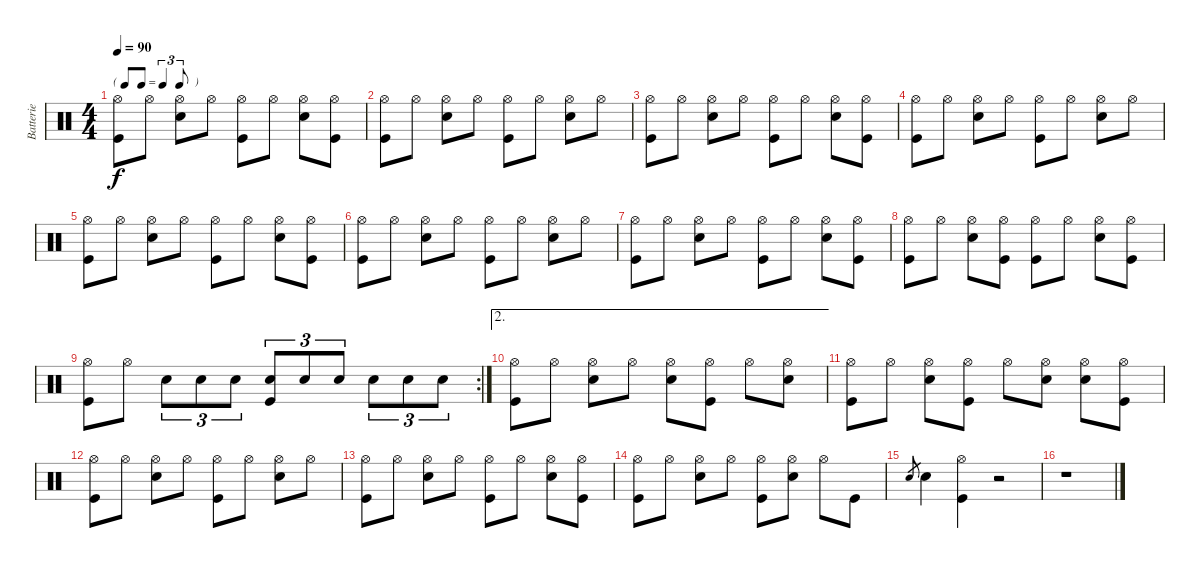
\track ("Batterie" "Batterie") {instrument percussion}
\staff {score}
\articulation defaults
\ts (4 4)
\tf triplet8th
\tempo 90
\clef neutral
\ks c
("Hi-Hat (open)" "Kick (hit)").8{dy f} "Hi-Hat (open)".8 ("Hi-Hat (open)" "Snare (hit) 2").8 "Hi-Hat (open)".8 ("Hi-Hat (open)" "Kick (hit)").8 "Hi-Hat (open)".8 ("Hi-Hat (open)" "Snare (hit) 2").8 ("Hi-Hat (open)" "Kick (hit)").8 |
("Hi-Hat (open)" "Kick (hit)").8 "Hi-Hat (open)".8 ("Hi-Hat (open)" "Snare (hit) 2").8 "Hi-Hat (open)".8 ("Hi-Hat (open)" "Kick (hit)").8 "Hi-Hat (open)".8 ("Hi-Hat (open)" "Snare (hit) 2").8 "Hi-Hat (open)".8 |
("Hi-Hat (open)" "Kick (hit)").8 "Hi-Hat (open)".8 ("Hi-Hat (open)" "Snare (hit) 2").8 "Hi-Hat (open)".8 ("Hi-Hat (open)" "Kick (hit)").8 "Hi-Hat (open)".8 ("Hi-Hat (open)" "Snare (hit) 2").8 ("Hi-Hat (open)" "Kick (hit)").8 |
("Hi-Hat (open)" "Kick (hit)").8 "Hi-Hat (open)".8 ("Hi-Hat (open)" "Snare (hit) 2").8 "Hi-Hat (open)".8 ("Hi-Hat (open)" "Kick (hit)").8 "Hi-Hat (open)".8 ("Hi-Hat (open)" "Snare (hit) 2").8 "Hi-Hat (open)".8 |
("Hi-Hat (open)" "Kick (hit)").8 "Hi-Hat (open)".8 ("Hi-Hat (open)" "Snare (hit) 2").8 "Hi-Hat (open)".8 ("Hi-Hat (open)" "Kick (hit)").8 "Hi-Hat (open)".8 ("Hi-Hat (open)" "Snare (hit) 2").8 ("Hi-Hat (open)" "Kick (hit)").8 |
("Hi-Hat (open)" "Kick (hit)").8 "Hi-Hat (open)".8 ("Hi-Hat (open)" "Snare (hit) 2").8 "Hi-Hat (open)".8 ("Hi-Hat (open)" "Kick (hit)").8 "Hi-Hat (open)".8 ("Hi-Hat (open)" "Snare (hit) 2").8 "Hi-Hat (open)".8 |
("Hi-Hat (open)" "Kick (hit)").8 "Hi-Hat (open)".8 ("Hi-Hat (open)" "Snare (hit) 2").8 "Hi-Hat (open)".8 ("Hi-Hat (open)" "Kick (hit)").8 "Hi-Hat (open)".8 ("Hi-Hat (open)" "Snare (hit) 2").8 ("Hi-Hat (open)" "Kick (hit)").8 |
("Hi-Hat (open)" "Kick (hit)").8 "Hi-Hat (open)".8 ("Hi-Hat (open)" "Snare (hit) 2").8 ("Hi-Hat (open)" "Kick (hit)").8 ("Hi-Hat (open)" "Kick (hit)").8 "Hi-Hat (open)".8 ("Hi-Hat (open)" "Snare (hit) 2").8 ("Hi-Hat (open)" "Kick (hit)").8 |
\rc 2
("Hi-Hat (open)" "Kick (hit)").8 "Hi-Hat (open)".8 "Snare (hit) 2".8{tu (3 2)} "Snare (hit) 2".8{tu (3 2)} "Snare (hit) 2".8{tu (3 2)} ("Snare (hit) 2" "Kick (hit)").8{tu (3 2)} "Snare (hit) 2".8{tu (3 2)} "Snare (hit) 2".8{tu (3 2)} "Snare (hit) 2".8{tu (3 2)} "Snare (hit) 2".8{tu (3 2)} "Snare (hit) 2".8{tu (3 2)} |
\ae 2
("Hi-Hat (open)" "Kick (hit)").8 "Hi-Hat (open)".8 ("Hi-Hat (open)" "Snare (hit) 2").8 "Hi-Hat (open)".8 ("Hi-Hat (open)" "Snare (hit) 2").8 ("Hi-Hat (open)" "Kick (hit)").8 "Hi-Hat (open)".8 ("Hi-Hat (open)" "Snare (hit) 2").8 |
("Hi-Hat (open)" "Kick (hit)").8 "Hi-Hat (open)".8 ("Hi-Hat (open)" "Snare (hit) 2").8 ("Hi-Hat (open)" "Kick (hit)").8 "Hi-Hat (open)".8 ("Hi-Hat (open)" "Snare (hit) 2").8 ("Hi-Hat (open)" "Snare (hit) 2").8 ("Hi-Hat (open)" "Kick (hit)").8 |
("Hi-Hat (open)" "Kick (hit)").8 "Hi-Hat (open)".8 ("Hi-Hat (open)" "Snare (hit) 2").8 "Hi-Hat (open)".8 ("Hi-Hat (open)" "Kick (hit)").8 "Hi-Hat (open)".8 ("Hi-Hat (open)" "Snare (hit) 2").8 "Hi-Hat (open)".8 |
("Hi-Hat (open)" "Kick (hit)").8 "Hi-Hat (open)".8 ("Hi-Hat (open)" "Snare (hit) 2").8 "Hi-Hat (open)".8 ("Hi-Hat (open)" "Kick (hit)").8 "Hi-Hat (open)".8 ("Hi-Hat (open)" "Snare (hit) 2").8 ("Hi-Hat (open)" "Kick (hit)").8 |
("Hi-Hat (open)" "Kick (hit)").8 "Hi-Hat (open)".8 ("Hi-Hat (open)" "Snare (hit) 2").8 "Hi-Hat (open)".8 ("Hi-Hat (open)" "Kick (hit)").8 ("Hi-Hat (open)" "Snare (hit) 2").8 "Hi-Hat (open)".8 "Kick (hit)".8 |
"Snare (hit) 2".8{gr} "Snare (hit) 2".4 ("Hi-Hat (open)" "Kick (hit)").4 r.2 |
r.1
